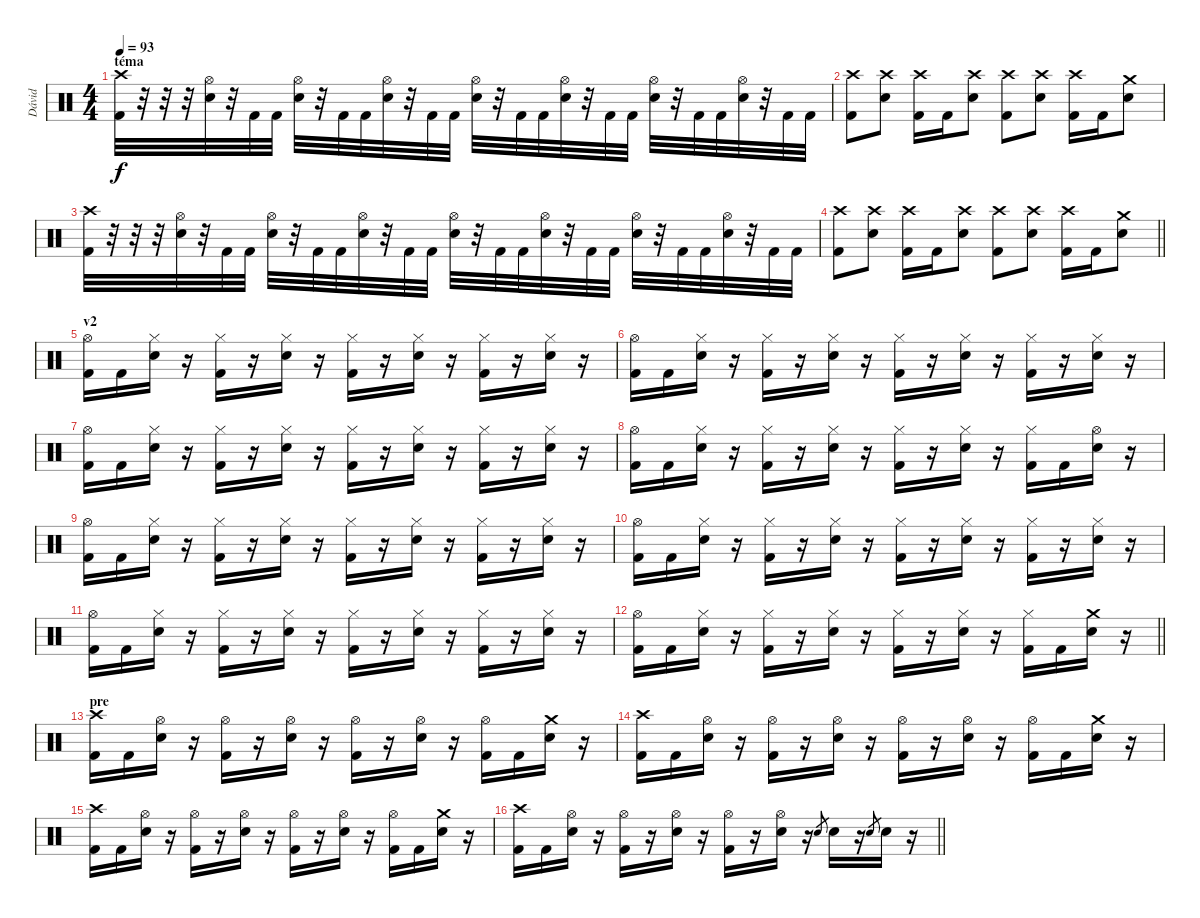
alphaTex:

\track ("Dávid" "Dávid") {instrument percussion}
\staff {score}
\articulation defaults
\ts (4 4)
\section ("" "téma")
\tempo 93
\clef neutral
\ks c
("Crash high (hit)" "Kick (hit) 2").32{dy f} r.32 r.32 r.32 ("Hi-Hat (open)" "Electric Snare (hit)").32 r.32 "Kick (hit) 2".32 "Kick (hit) 2".32 ("Hi-Hat (open)" "Electric Snare (hit)").32 r.32 "Kick (hit) 2".32 "Kick (hit) 2".32 ("Hi-Hat (open)" "Electric Snare (hit)").32 r.32 "Kick (hit) 2".32 "Kick (hit) 2".32 ("Hi-Hat (open)" "Electric Snare (hit)").32 r.32 "Kick (hit) 2".32 "Kick (hit) 2".32 ("Hi-Hat (open)" "Electric Snare (hit)").32 r.32 "Kick (hit) 2".32 "Kick (hit) 2".32 ("Hi-Hat (open)" "Electric Snare (hit)").32 r.32 "Kick (hit) 2".32 "Kick (hit) 2".32 ("Hi-Hat (open)" "Electric Snare (hit)").32 r.32 "Kick (hit) 2".32 "Kick (hit) 2".32 |
("Crash high (hit)" "Kick (hit) 2").8 ("Crash high (hit)" "Electric Snare (hit)").8 ("Crash high (hit)" "Kick (hit) 2").16 "Kick (hit) 2".16 ("Crash high (hit)" "Electric Snare (hit)").8 ("Crash high (hit)" "Kick (hit) 2").8 ("Crash high (hit)" "Electric Snare (hit)").8 ("Crash high (hit)" "Kick (hit) 2").16 "Kick (hit) 2".16 ("Crash medium (hit)" "Electric Snare (hit)").8 |
("Crash high (hit)" "Kick (hit) 2").32 r.32 r.32 r.32 ("Hi-Hat (open)" "Electric Snare (hit)").32 r.32 "Kick (hit) 2".32 "Kick (hit) 2".32 ("Hi-Hat (open)" "Electric Snare (hit)").32 r.32 "Kick (hit) 2".32 "Kick (hit) 2".32 ("Hi-Hat (open)" "Electric Snare (hit)").32 r.32 "Kick (hit) 2".32 "Kick (hit) 2".32 ("Hi-Hat (open)" "Electric Snare (hit)").32 r.32 "Kick (hit) 2".32 "Kick (hit) 2".32 ("Hi-Hat (open)" "Electric Snare (hit)").32 r.32 "Kick (hit) 2".32 "Kick (hit) 2".32 ("Hi-Hat (open)" "Electric Snare (hit)").32 r.32 "Kick (hit) 2".32 "Kick (hit) 2".32 ("Hi-Hat (open)" "Electric Snare (hit)").32 r.32 "Kick (hit) 2".32 "Kick (hit) 2".32 |
\barLineRight lightlight
("Crash high (hit)" "Kick (hit) 2").8 ("Crash high (hit)" "Electric Snare (hit)").8 ("Crash high (hit)" "Kick (hit) 2").16 "Kick (hit) 2".16 ("Crash high (hit)" "Electric Snare (hit)").8 ("Crash high (hit)" "Kick (hit) 2").8 ("Crash high (hit)" "Electric Snare (hit)").8 ("Crash high (hit)" "Kick (hit) 2").16 "Kick (hit) 2".16 ("Crash medium (hit)" "Electric Snare (hit)").8 |
\section ("" "v2")
("Hi-Hat (open)" "Kick (hit) 2").16 "Kick (hit) 2".16 ("Hi-Hat (closed)" "Electric Snare (hit)").16 r.16 ("Hi-Hat (closed)" "Kick (hit) 2").16 r.16 ("Hi-Hat (closed)" "Electric Snare (hit)").16 r.16 ("Hi-Hat (closed)" "Kick (hit) 2").16 r.16 ("Hi-Hat (closed)" "Electric Snare (hit)").16 r.16 ("Hi-Hat (closed)" "Kick (hit) 2").16 r.16 ("Hi-Hat (closed)" "Electric Snare (hit)").16 r.16 |
("Hi-Hat (open)" "Kick (hit) 2").16 "Kick (hit) 2".16 ("Hi-Hat (closed)" "Electric Snare (hit)").16 r.16 ("Hi-Hat (closed)" "Kick (hit) 2").16 r.16 ("Hi-Hat (closed)" "Electric Snare (hit)").16 r.16 ("Hi-Hat (closed)" "Kick (hit) 2").16 r.16 ("Hi-Hat (closed)" "Electric Snare (hit)").16 r.16 ("Hi-Hat (closed)" "Kick (hit) 2").16 r.16 ("Hi-Hat (closed)" "Electric Snare (hit)").16 r.16 |
("Hi-Hat (open)" "Kick (hit) 2").16 "Kick (hit) 2".16 ("Hi-Hat (closed)" "Electric Snare (hit)").16 r.16 ("Hi-Hat (closed)" "Kick (hit) 2").16 r.16 ("Hi-Hat (closed)" "Electric Snare (hit)").16 r.16 ("Hi-Hat (closed)" "Kick (hit) 2").16 r.16 ("Hi-Hat (closed)" "Electric Snare (hit)").16 r.16 ("Hi-Hat (closed)" "Kick (hit) 2").16 r.16 ("Hi-Hat (closed)" "Electric Snare (hit)").16 r.16 |
("Hi-Hat (open)" "Kick (hit) 2").16 "Kick (hit) 2".16 ("Hi-Hat (closed)" "Electric Snare (hit)").16 r.16 ("Hi-Hat (closed)" "Kick (hit) 2").16 r.16 ("Hi-Hat (closed)" "Electric Snare (hit)").16 r.16 ("Hi-Hat (closed)" "Kick (hit) 2").16 r.16 ("Hi-Hat (closed)" "Electric Snare (hit)").16 r.16 ("Hi-Hat (closed)" "Kick (hit) 2").16 "Kick (hit) 2".16 ("Hi-Hat (open)" "Electric Snare (hit)").16 r.16 |
("Hi-Hat (open)" "Kick (hit) 2").16 "Kick (hit) 2".16 ("Hi-Hat (closed)" "Electric Snare (hit)").16 r.16 ("Hi-Hat (closed)" "Kick (hit) 2").16 r.16 ("Hi-Hat (closed)" "Electric Snare (hit)").16 r.16 ("Hi-Hat (closed)" "Kick (hit) 2").16 r.16 ("Hi-Hat (closed)" "Electric Snare (hit)").16 r.16 ("Hi-Hat (closed)" "Kick (hit) 2").16 r.16 ("Hi-Hat (closed)" "Electric Snare (hit)").16 r.16 |
("Hi-Hat (open)" "Kick (hit) 2").16 "Kick (hit) 2".16 ("Hi-Hat (closed)" "Electric Snare (hit)").16 r.16 ("Hi-Hat (closed)" "Kick (hit) 2").16 r.16 ("Hi-Hat (closed)" "Electric Snare (hit)").16 r.16 ("Hi-Hat (closed)" "Kick (hit) 2").16 r.16 ("Hi-Hat (closed)" "Electric Snare (hit)").16 r.16 ("Hi-Hat (closed)" "Kick (hit) 2").16 r.16 ("Hi-Hat (closed)" "Electric Snare (hit)").16 r.16 |
("Hi-Hat (open)" "Kick (hit) 2").16 "Kick (hit) 2".16 ("Hi-Hat (closed)" "Electric Snare (hit)").16 r.16 ("Hi-Hat (closed)" "Kick (hit) 2").16 r.16 ("Hi-Hat (closed)" "Electric Snare (hit)").16 r.16 ("Hi-Hat (closed)" "Kick (hit) 2").16 r.16 ("Hi-Hat (closed)" "Electric Snare (hit)").16 r.16 ("Hi-Hat (closed)" "Kick (hit) 2").16 r.16 ("Hi-Hat (closed)" "Electric Snare (hit)").16 r.16 |
\barLineRight lightlight
("Hi-Hat (open)" "Kick (hit) 2").16 "Kick (hit) 2".16 ("Hi-Hat (closed)" "Electric Snare (hit)").16 r.16 ("Hi-Hat (closed)" "Kick (hit) 2").16 r.16 ("Hi-Hat (closed)" "Electric Snare (hit)").16 r.16 ("Hi-Hat (closed)" "Kick (hit) 2").16 r.16 ("Hi-Hat (closed)" "Electric Snare (hit)").16 r.16 ("Hi-Hat (closed)" "Kick (hit) 2").16 "Kick (hit) 2".16 ("Crash medium (hit)" "Electric Snare (hit)").16 r.16 |
\section ("" "pre")
("Crash high (hit)" "Kick (hit) 2").16 "Kick (hit) 2".16 ("Hi-Hat (open)" "Electric Snare (hit)").16 r.16 ("Hi-Hat (open)" "Kick (hit) 2").16 r.16 ("Hi-Hat (open)" "Electric Snare (hit)").16 r.16 ("Hi-Hat (open)" "Kick (hit) 2").16 r.16 ("Hi-Hat (open)" "Electric Snare (hit)").16 r.16 ("Hi-Hat (open)" "Kick (hit) 2").16 "Kick (hit) 2".16 ("Crash medium (hit)" "Electric Snare (hit)").16 r.16 |
("Crash high (hit)" "Kick (hit) 2").16 "Kick (hit) 2".16 ("Hi-Hat (open)" "Electric Snare (hit)").16 r.16 ("Hi-Hat (open)" "Kick (hit) 2").16 r.16 ("Hi-Hat (open)" "Electric Snare (hit)").16 r.16 ("Hi-Hat (open)" "Kick (hit) 2").16 r.16 ("Hi-Hat (open)" "Electric Snare (hit)").16 r.16 ("Hi-Hat (open)" "Kick (hit) 2").16 "Kick (hit) 2".16 ("Crash medium (hit)" "Electric Snare (hit)").16 r.16 |
("Crash high (hit)" "Kick (hit) 2").16 "Kick (hit) 2".16 ("Hi-Hat (open)" "Electric Snare (hit)").16 r.16 ("Hi-Hat (open)" "Kick (hit) 2").16 r.16 ("Hi-Hat (open)" "Electric Snare (hit)").16 r.16 ("Hi-Hat (open)" "Kick (hit) 2").16 r.16 ("Hi-Hat (open)" "Electric Snare (hit)").16 r.16 ("Hi-Hat (open)" "Kick (hit) 2").16 "Kick (hit) 2".16 ("Crash medium (hit)" "Electric Snare (hit)").16 r.16 |
\barLineRight lightlight
("Crash high (hit)" "Kick (hit) 2").16 "Kick (hit) 2".16 ("Hi-Hat (open)" "Electric Snare (hit)").16 r.16 ("Hi-Hat (open)" "Kick (hit) 2").16 r.16 ("Hi-Hat (open)" "Electric Snare (hit)").16 r.16 ("Hi-Hat (open)" "Kick (hit) 2").16 r.16 ("Hi-Hat (open)" "Electric Snare (hit)").16 r.16 "Electric Snare (hit)".8{gr} "Electric Snare (hit)".16 r.16 "Electric Snare (hit)".8{gr} "Electric Snare (hit)".16 r.16
